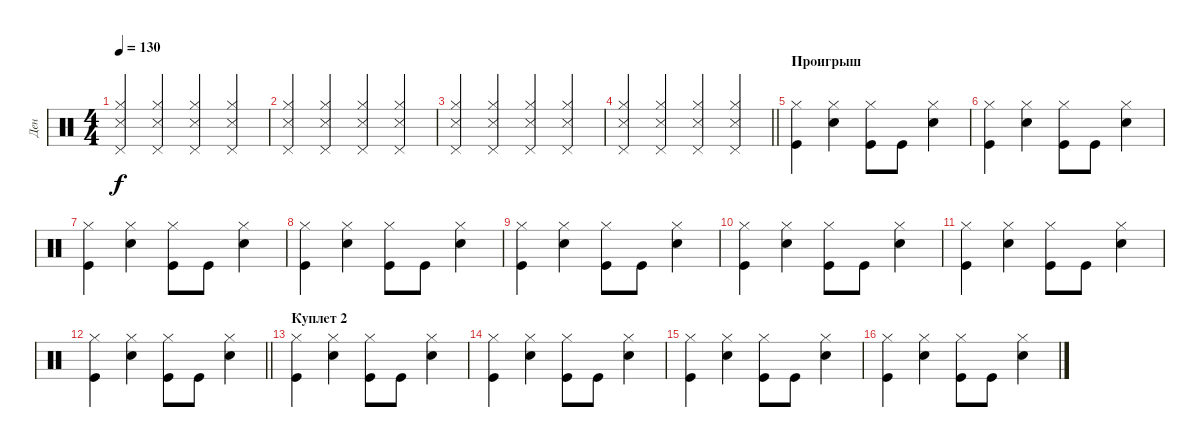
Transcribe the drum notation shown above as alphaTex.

\track ("Ден" "Ден") {instrument percussion}
\staff {score}
\articulation defaults
\ts (4 4)
\tempo 130
\clef neutral
\ks c
("Pedal Hi-Hat (hit)" "Hi-Hat (closed)" "Snare (side stick) 3").4{dy f} ("Pedal Hi-Hat (hit)" "Hi-Hat (closed)" "Snare (side stick) 3").4 ("Pedal Hi-Hat (hit)" "Hi-Hat (closed)" "Snare (side stick) 3").4 ("Pedal Hi-Hat (hit)" "Hi-Hat (closed)" "Snare (side stick) 3").4 |
("Pedal Hi-Hat (hit)" "Hi-Hat (closed)" "Snare (side stick) 3").4 ("Pedal Hi-Hat (hit)" "Hi-Hat (closed)" "Snare (side stick) 3").4 ("Pedal Hi-Hat (hit)" "Hi-Hat (closed)" "Snare (side stick) 3").4 ("Pedal Hi-Hat (hit)" "Hi-Hat (closed)" "Snare (side stick) 3").4 |
("Pedal Hi-Hat (hit)" "Hi-Hat (closed)" "Snare (side stick) 3").4 ("Pedal Hi-Hat (hit)" "Hi-Hat (closed)" "Snare (side stick) 3").4 ("Pedal Hi-Hat (hit)" "Hi-Hat (closed)" "Snare (side stick) 3").4 ("Pedal Hi-Hat (hit)" "Hi-Hat (closed)" "Snare (side stick) 3").4 |
\barLineRight lightlight
("Pedal Hi-Hat (hit)" "Hi-Hat (closed)" "Snare (side stick) 3").4 ("Pedal Hi-Hat (hit)" "Hi-Hat (closed)" "Snare (side stick) 3").4 ("Pedal Hi-Hat (hit)" "Hi-Hat (closed)" "Snare (side stick) 3").4 ("Pedal Hi-Hat (hit)" "Hi-Hat (closed)" "Snare (side stick) 3").4 |
\section ("" "Проигрыш")
("Kick (hit)" "Hi-Hat (closed)").4 ("Snare (hit) 2" "Hi-Hat (closed)").4 ("Kick (hit)" "Hi-Hat (closed)").8 "Kick (hit)".8 ("Snare (hit) 2" "Hi-Hat (closed)").4 |
("Kick (hit)" "Hi-Hat (closed)").4 ("Snare (hit) 2" "Hi-Hat (closed)").4 ("Kick (hit)" "Hi-Hat (closed)").8 "Kick (hit)".8 ("Snare (hit) 2" "Hi-Hat (closed)").4 |
("Kick (hit)" "Hi-Hat (closed)").4 ("Snare (hit) 2" "Hi-Hat (closed)").4 ("Kick (hit)" "Hi-Hat (closed)").8 "Kick (hit)".8 ("Snare (hit) 2" "Hi-Hat (closed)").4 |
("Kick (hit)" "Hi-Hat (closed)").4 ("Snare (hit) 2" "Hi-Hat (closed)").4 ("Kick (hit)" "Hi-Hat (closed)").8 "Kick (hit)".8 ("Snare (hit) 2" "Hi-Hat (closed)").4 |
("Kick (hit)" "Hi-Hat (closed)").4 ("Snare (hit) 2" "Hi-Hat (closed)").4 ("Kick (hit)" "Hi-Hat (closed)").8 "Kick (hit)".8 ("Snare (hit) 2" "Hi-Hat (closed)").4 |
("Kick (hit)" "Hi-Hat (closed)").4 ("Snare (hit) 2" "Hi-Hat (closed)").4 ("Kick (hit)" "Hi-Hat (closed)").8 "Kick (hit)".8 ("Snare (hit) 2" "Hi-Hat (closed)").4 |
("Kick (hit)" "Hi-Hat (closed)").4 ("Snare (hit) 2" "Hi-Hat (closed)").4 ("Kick (hit)" "Hi-Hat (closed)").8 "Kick (hit)".8 ("Snare (hit) 2" "Hi-Hat (closed)").4 |
\barLineRight lightlight
("Kick (hit)" "Hi-Hat (closed)").4 ("Snare (hit) 2" "Hi-Hat (closed)").4 ("Kick (hit)" "Hi-Hat (closed)").8 "Kick (hit)".8 ("Snare (hit) 2" "Hi-Hat (closed)").4 |
\section ("" "Куплет 2")
("Kick (hit)" "Hi-Hat (closed)").4 ("Snare (hit) 2" "Hi-Hat (closed)").4 ("Kick (hit)" "Hi-Hat (closed)").8 "Kick (hit)".8 ("Snare (hit) 2" "Hi-Hat (closed)").4 |
("Kick (hit)" "Hi-Hat (closed)").4 ("Snare (hit) 2" "Hi-Hat (closed)").4 ("Kick (hit)" "Hi-Hat (closed)").8 "Kick (hit)".8 ("Snare (hit) 2" "Hi-Hat (closed)").4 |
("Kick (hit)" "Hi-Hat (closed)").4 ("Snare (hit) 2" "Hi-Hat (closed)").4 ("Kick (hit)" "Hi-Hat (closed)").8 "Kick (hit)".8 ("Snare (hit) 2" "Hi-Hat (closed)").4 |
("Kick (hit)" "Hi-Hat (closed)").4 ("Snare (hit) 2" "Hi-Hat (closed)").4 ("Kick (hit)" "Hi-Hat (closed)").8 "Kick (hit)".8 ("Snare (hit) 2" "Hi-Hat (closed)").4
